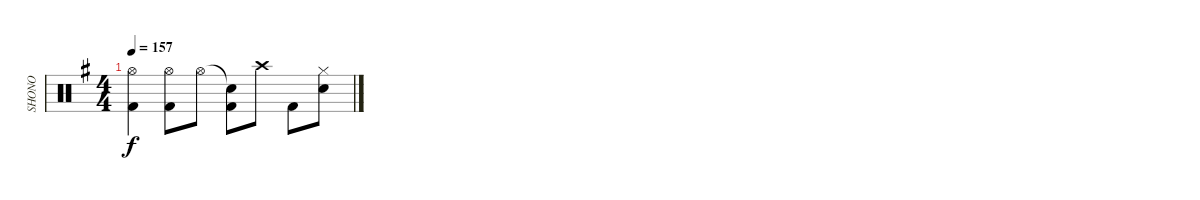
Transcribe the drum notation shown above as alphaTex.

\track ("SHONO" "SHONO") {instrument percussion}
\staff {score}
\articulation defaults
\ts (4 4)
\tempo 157
\clef neutral
\ks g
("Hi-Hat (open)" "Kick (hit) 2").4{dy f} ("Hi-Hat (open)" "Kick (hit) 2").8 "Hi-Hat (open)".8 ("Snare (hit)"{t} "Kick (hit) 2").8 "Crash high (hit)".8 "Kick (hit) 2".8 ("Hi-Hat (closed)" "Snare (hit) 2").8
